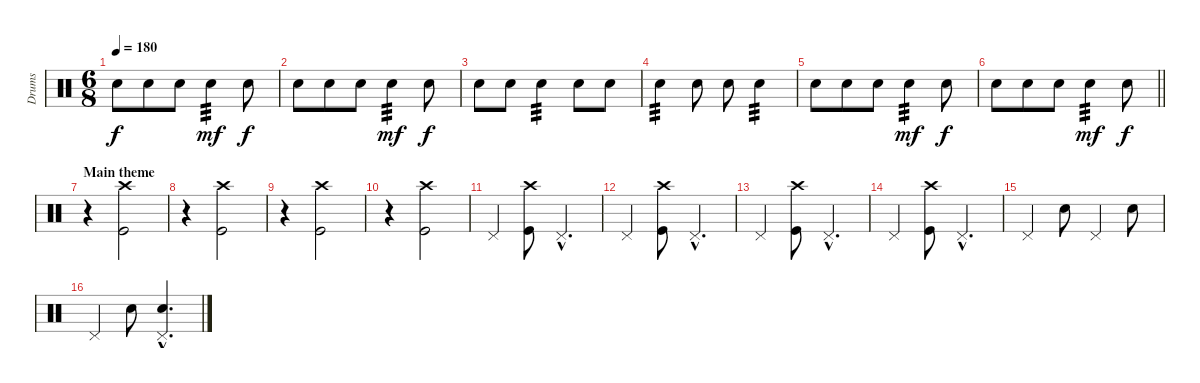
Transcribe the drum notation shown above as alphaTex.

\track ("Drums" "Drums") {instrument percussion}
\staff {score}
\articulation defaults
\ts (6 8)
\tempo 180
\clef neutral
\ks c "Electric Snare (hit)".8{dy f} "Electric Snare (hit)".8 "Electric Snare (hit)".8 "Electric Snare (hit)".4{tp 3 dy mf} "Electric Snare (hit)".8{dy f}
|
"Electric Snare (hit)".8 "Electric Snare (hit)".8 "Electric Snare (hit)".8 "Electric Snare (hit)".4{tp 3 dy mf} "Electric Snare (hit)".8{dy f} |
"Electric Snare (hit)".8 "Electric Snare (hit)".8 "Electric Snare (hit)".4{tp 3} "Electric Snare (hit)".8 "Electric Snare (hit)".8 |
"Electric Snare (hit)".4{tp 3} "Electric Snare (hit)".8 "Electric Snare (hit)".8 "Electric Snare (hit)".4{tp 3} |
"Electric Snare (hit)".8 "Electric Snare (hit)".8 "Electric Snare (hit)".8 "Electric Snare (hit)".4{tp 3 dy mf} "Electric Snare (hit)".8{dy f} |
\barLineRight lightlight "Electric Snare (hit)".8 "Electric Snare (hit)".8 "Electric Snare (hit)".8 "Electric Snare (hit)".4{tp 3 dy mf} "Electric Snare (hit)".8{dy f}
|
\section ("" "Main theme")
r.4 ("Crash high (hit)" "Kick (hit)").2 |
r.4 ("Crash high (hit)" "Kick (hit)").2 |
r.4 ("Crash high (hit)" "Kick (hit)").2 |
r.4 ("Crash high (hit)" "Kick (hit)").2 |
"Pedal Hi-Hat (hit)".4 ("Crash high (hit)" "Kick (hit)").8 "Pedal Hi-Hat (hit)"{hac}.4{d} |
"Pedal Hi-Hat (hit)".4 ("Crash high (hit)" "Kick (hit)").8 "Pedal Hi-Hat (hit)"{hac}.4{d} |
"Pedal Hi-Hat (hit)".4 ("Crash high (hit)" "Kick (hit)").8 "Pedal Hi-Hat (hit)"{hac}.4{d} |
"Pedal Hi-Hat (hit)".4 ("Crash high (hit)" "Kick (hit)").8 "Pedal Hi-Hat (hit)"{hac}.4{d} |
"Pedal Hi-Hat (hit)".4 "Electric Snare (hit)".8 "Pedal Hi-Hat (hit)".4 "Electric Snare (hit)".8 |
"Pedal Hi-Hat (hit)".4 "Electric Snare (hit)".8 ("Pedal Hi-Hat (hit)"{hac} "Electric Snare (hit)"{hac}).4{d}
